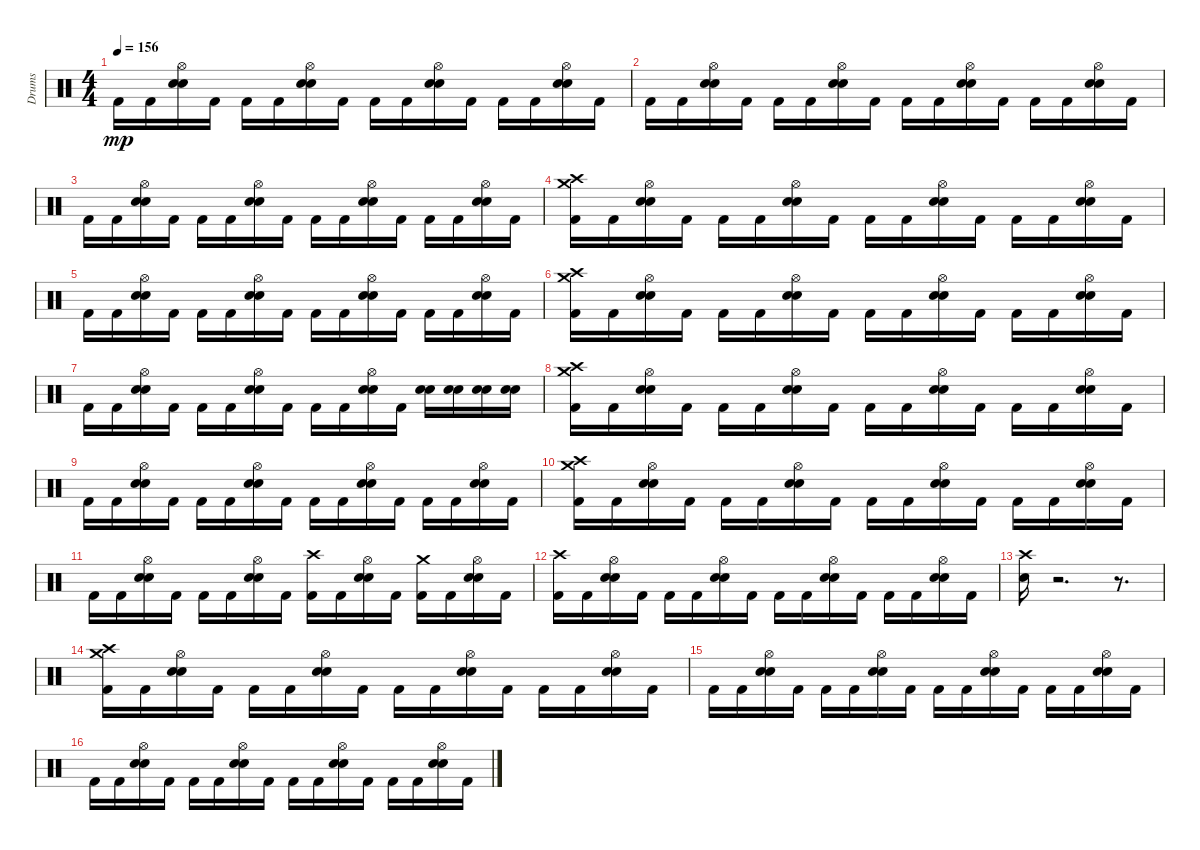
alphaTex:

\track ("Drums" "Drums") {instrument percussion}
\staff {score}
\articulation defaults
\ts (4 4)
\tempo 156
\clef neutral
\ks c "Kick (hit) 2".16{dy mp} "Kick (hit) 2".16
("Electric Snare (hit)" "Snare (hit) 2" "Hi-Hat (open)").16 "Kick (hit) 2".16 "Kick (hit) 2".16 "Kick (hit) 2".16 ("Electric Snare (hit)" "Hi-Hat (open)" "Snare (hit) 2").16 "Kick (hit) 2".16 "Kick (hit) 2".16 "Kick (hit) 2".16 ("Hi-Hat (open)" "Electric Snare (hit)" "Snare (hit) 2").16 "Kick (hit) 2".16 "Kick (hit) 2".16 "Kick (hit) 2".16 ("Hi-Hat (open)" "Snare (hit) 2" "Electric Snare (hit)").16 "Kick (hit) 2".16 |
"Kick (hit) 2".16 "Kick (hit) 2".16 ("Hi-Hat (open)" "Snare (hit) 2" "Electric Snare (hit)").16 "Kick (hit) 2".16 "Kick (hit) 2".16 "Kick (hit) 2".16 ("Snare (hit) 2" "Electric Snare (hit)" "Hi-Hat (open)").16 "Kick (hit) 2".16 "Kick (hit) 2".16 "Kick (hit) 2".16 ("Hi-Hat (open)" "Snare (hit) 2" "Electric Snare (hit)").16 "Kick (hit) 2".16 "Kick (hit) 2".16 "Kick (hit) 2".16 ("Snare (hit) 2" "Electric Snare (hit)" "Hi-Hat (open)").16 "Kick (hit) 2".16 |
"Kick (hit) 2".16 "Kick (hit) 2".16 ("Hi-Hat (open)" "Electric Snare (hit)" "Snare (hit) 2").16 "Kick (hit) 2".16 "Kick (hit) 2".16 "Kick (hit) 2".16 ("Hi-Hat (open)" "Electric Snare (hit)" "Snare (hit) 2").16 "Kick (hit) 2".16 "Kick (hit) 2".16 "Kick (hit) 2".16 ("Electric Snare (hit)" "Hi-Hat (open)" "Snare (hit) 2").16 "Kick (hit) 2".16 "Kick (hit) 2".16 "Kick (hit) 2".16 ("Hi-Hat (open)" "Electric Snare (hit)" "Snare (hit) 2").16 "Kick (hit) 2".16 |
("Kick (hit) 2" "Crash medium (hit)" "Crash high (hit)").16 "Kick (hit) 2".16 ("Snare (hit) 2" "Electric Snare (hit)" "Hi-Hat (open)").16 "Kick (hit) 2".16 "Kick (hit) 2".16 "Kick (hit) 2".16 ("Snare (hit) 2" "Hi-Hat (open)" "Electric Snare (hit)").16 "Kick (hit) 2".16 "Kick (hit) 2".16 "Kick (hit) 2".16 ("Electric Snare (hit)" "Hi-Hat (open)" "Snare (hit) 2").16 "Kick (hit) 2".16 "Kick (hit) 2".16 "Kick (hit) 2".16 ("Electric Snare (hit)" "Snare (hit) 2" "Hi-Hat (open)").16 "Kick (hit) 2".16 |
"Kick (hit) 2".16 "Kick (hit) 2".16 ("Electric Snare (hit)" "Snare (hit) 2" "Hi-Hat (open)").16 "Kick (hit) 2".16 "Kick (hit) 2".16 "Kick (hit) 2".16 ("Electric Snare (hit)" "Snare (hit) 2" "Hi-Hat (open)").16 "Kick (hit) 2".16 "Kick (hit) 2".16 "Kick (hit) 2".16 ("Hi-Hat (open)" "Snare (hit) 2" "Electric Snare (hit)").16 "Kick (hit) 2".16 "Kick (hit) 2".16 "Kick (hit) 2".16 ("Electric Snare (hit)" "Snare (hit) 2" "Hi-Hat (open)").16 "Kick (hit) 2".16 |
("Kick (hit) 2" "Crash medium (hit)" "Crash high (hit)").16 "Kick (hit) 2".16 ("Hi-Hat (open)" "Electric Snare (hit)" "Snare (hit) 2").16 "Kick (hit) 2".16 "Kick (hit) 2".16 "Kick (hit) 2".16 ("Snare (hit) 2" "Hi-Hat (open)" "Electric Snare (hit)").16 "Kick (hit) 2".16 "Kick (hit) 2".16 "Kick (hit) 2".16 ("Snare (hit) 2" "Hi-Hat (open)" "Electric Snare (hit)").16 "Kick (hit) 2".16 "Kick (hit) 2".16 "Kick (hit) 2".16 ("Hi-Hat (open)" "Snare (hit) 2" "Electric Snare (hit)").16 "Kick (hit) 2".16 |
"Kick (hit) 2".16 "Kick (hit) 2".16 ("Snare (hit) 2" "Electric Snare (hit)" "Hi-Hat (open)").16 "Kick (hit) 2".16 "Kick (hit) 2".16 "Kick (hit) 2".16 ("Electric Snare (hit)" "Hi-Hat (open)" "Snare (hit) 2").16 "Kick (hit) 2".16 "Kick (hit) 2".16 "Kick (hit) 2".16 ("Snare (hit) 2" "Hi-Hat (open)" "Electric Snare (hit)").16 "Kick (hit) 2".16 ("Electric Snare (hit)" "Snare (hit) 2").16 ("Snare (hit) 2" "Electric Snare (hit)").16 ("Snare (hit) 2" "Electric Snare (hit)").16 ("Snare (hit) 2" "Electric Snare (hit)").16 |
("Kick (hit) 2" "Crash high (hit)" "Crash medium (hit)").16 "Kick (hit) 2".16 ("Electric Snare (hit)" "Hi-Hat (open)" "Snare (hit) 2").16 "Kick (hit) 2".16 "Kick (hit) 2".16 "Kick (hit) 2".16 ("Hi-Hat (open)" "Electric Snare (hit)" "Snare (hit) 2").16 "Kick (hit) 2".16 "Kick (hit) 2".16 "Kick (hit) 2".16 ("Snare (hit) 2" "Hi-Hat (open)" "Electric Snare (hit)").16 "Kick (hit) 2".16 "Kick (hit) 2".16 "Kick (hit) 2".16 ("Snare (hit) 2" "Hi-Hat (open)" "Electric Snare (hit)").16 "Kick (hit) 2".16 |
"Kick (hit) 2".16 "Kick (hit) 2".16 ("Electric Snare (hit)" "Hi-Hat (open)" "Snare (hit) 2").16 "Kick (hit) 2".16 "Kick (hit) 2".16 "Kick (hit) 2".16 ("Electric Snare (hit)" "Snare (hit) 2" "Hi-Hat (open)").16 "Kick (hit) 2".16 "Kick (hit) 2".16 "Kick (hit) 2".16 ("Hi-Hat (open)" "Electric Snare (hit)" "Snare (hit) 2").16 "Kick (hit) 2".16 "Kick (hit) 2".16 "Kick (hit) 2".16 ("Hi-Hat (open)" "Electric Snare (hit)" "Snare (hit) 2").16 "Kick (hit) 2".16 |
("Crash high (hit)" "Kick (hit) 2" "Crash medium (hit)").16 "Kick (hit) 2".16 ("Hi-Hat (open)" "Snare (hit) 2" "Electric Snare (hit)").16 "Kick (hit) 2".16 "Kick (hit) 2".16 "Kick (hit) 2".16 ("Electric Snare (hit)" "Snare (hit) 2" "Hi-Hat (open)").16 "Kick (hit) 2".16 "Kick (hit) 2".16 "Kick (hit) 2".16 ("Hi-Hat (open)" "Electric Snare (hit)" "Snare (hit) 2").16 "Kick (hit) 2".16 "Kick (hit) 2".16 "Kick (hit) 2".16 ("Electric Snare (hit)" "Hi-Hat (open)" "Snare (hit) 2").16 "Kick (hit) 2".16 |
"Kick (hit) 2".16 "Kick (hit) 2".16 ("Electric Snare (hit)" "Snare (hit) 2" "Hi-Hat (open)").16 "Kick (hit) 2".16 "Kick (hit) 2".16 "Kick (hit) 2".16 ("Electric Snare (hit)" "Hi-Hat (open)" "Snare (hit) 2").16 "Kick (hit) 2".16 ("Kick (hit) 2" "Crash high (hit)").16 "Kick (hit) 2".16 ("Electric Snare (hit)" "Hi-Hat (open)" "Snare (hit) 2").16 "Kick (hit) 2".16 ("Kick (hit) 2" "Crash medium (hit)").16 "Kick (hit) 2".16 ("Snare (hit) 2" "Electric Snare (hit)" "Hi-Hat (open)").16 "Kick (hit) 2".16 |
("Crash high (hit)" "Kick (hit) 2").16 "Kick (hit) 2".16 ("Hi-Hat (open)" "Snare (hit) 2" "Electric Snare (hit)").16 "Kick (hit) 2".16 "Kick (hit) 2".16 "Kick (hit) 2".16 ("Snare (hit) 2" "Electric Snare (hit)" "Hi-Hat (open)").16 "Kick (hit) 2".16 "Kick (hit) 2".16 "Kick (hit) 2".16 ("Hi-Hat (open)" "Snare (hit) 2" "Electric Snare (hit)").16 "Kick (hit) 2".16 "Kick (hit) 2".16 "Kick (hit) 2".16 ("Snare (hit) 2" "Electric Snare (hit)" "Hi-Hat (open)").16 "Kick (hit) 2".16 |
("Snare (hit) 2" "Crash high (hit)").16 r.2{d} r.8{d} |
("Crash high (hit)" "Crash medium (hit)" "Kick (hit) 2").16 "Kick (hit) 2".16 ("Hi-Hat (open)" "Snare (hit) 2" "Electric Snare (hit)").16 "Kick (hit) 2".16 "Kick (hit) 2".16 "Kick (hit) 2".16 ("Hi-Hat (open)" "Snare (hit) 2" "Electric Snare (hit)").16 "Kick (hit) 2".16 "Kick (hit) 2".16 "Kick (hit) 2".16 ("Electric Snare (hit)" "Snare (hit) 2" "Hi-Hat (open)").16 "Kick (hit) 2".16 "Kick (hit) 2".16 "Kick (hit) 2".16 ("Electric Snare (hit)" "Snare (hit) 2" "Hi-Hat (open)").16 "Kick (hit) 2".16 |
"Kick (hit) 2".16 "Kick (hit) 2".16 ("Snare (hit) 2" "Hi-Hat (open)" "Electric Snare (hit)").16 "Kick (hit) 2".16 "Kick (hit) 2".16 "Kick (hit) 2".16 ("Hi-Hat (open)" "Electric Snare (hit)" "Snare (hit) 2").16 "Kick (hit) 2".16 "Kick (hit) 2".16 "Kick (hit) 2".16 ("Hi-Hat (open)" "Electric Snare (hit)" "Snare (hit) 2").16 "Kick (hit) 2".16 "Kick (hit) 2".16 "Kick (hit) 2".16 ("Snare (hit) 2" "Electric Snare (hit)" "Hi-Hat (open)").16 "Kick (hit) 2".16 |
"Kick (hit) 2".16 "Kick (hit) 2".16 ("Snare (hit) 2" "Electric Snare (hit)" "Hi-Hat (open)").16 "Kick (hit) 2".16 "Kick (hit) 2".16 "Kick (hit) 2".16 ("Hi-Hat (open)" "Snare (hit) 2" "Electric Snare (hit)").16 "Kick (hit) 2".16 "Kick (hit) 2".16 "Kick (hit) 2".16 ("Electric Snare (hit)" "Snare (hit) 2" "Hi-Hat (open)").16 "Kick (hit) 2".16 "Kick (hit) 2".16 "Kick (hit) 2".16 ("Hi-Hat (open)" "Snare (hit) 2" "Electric Snare (hit)").16 "Kick (hit) 2".16
